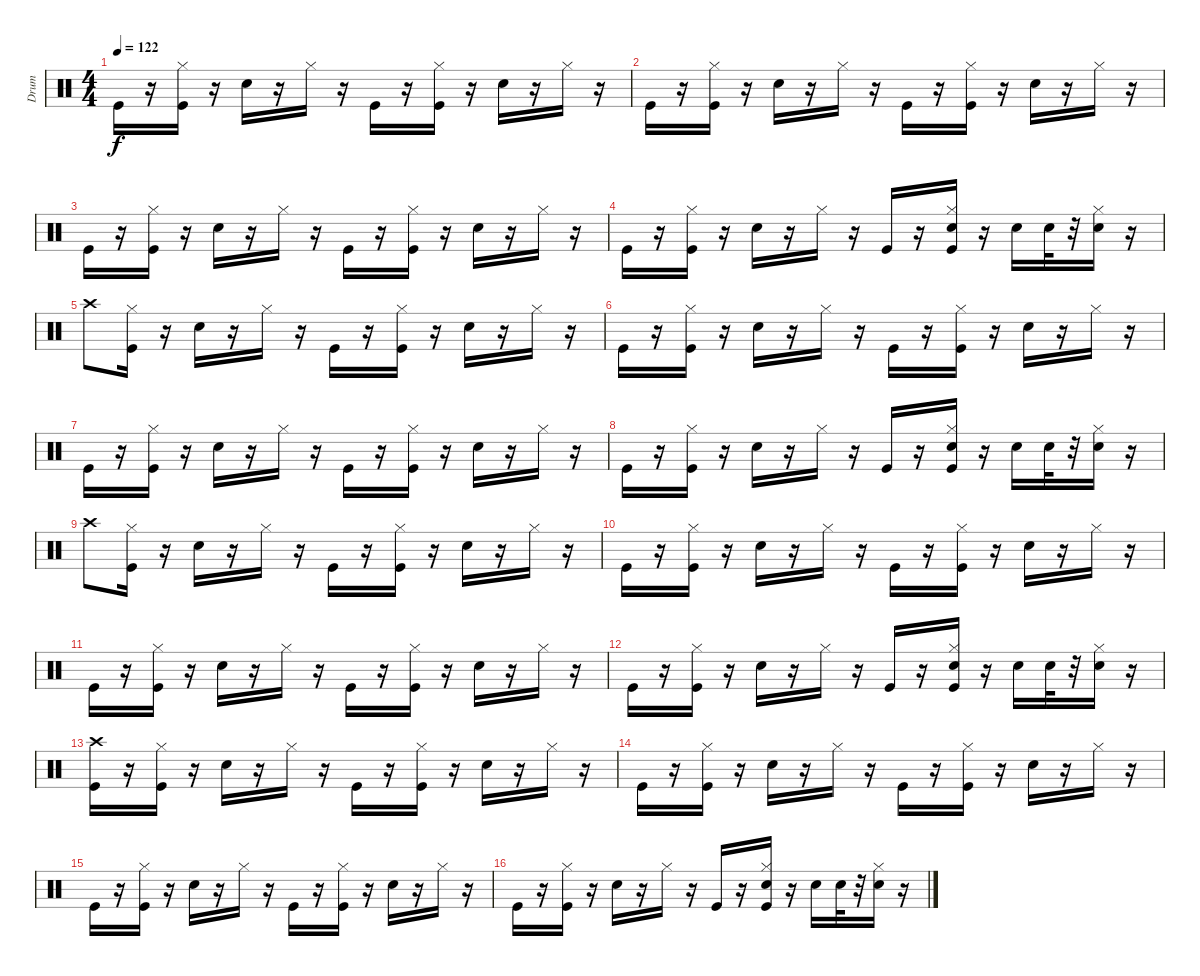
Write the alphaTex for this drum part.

\track ("Drum" "Drum") {instrument percussion}
\staff {score}
\articulation defaults
\ts (4 4)
\tempo 122
\clef neutral
\ks c "Kick (hit)".16{dy f}
r.16 ("Kick (hit)" "Hi-Hat (closed)").16 r.16 "Snare (hit) 2".16 r.16 "Hi-Hat (closed)".16 r.16 "Kick (hit)".16 r.16 ("Kick (hit)" "Hi-Hat (closed)").16 r.16 "Snare (hit) 2".16 r.16 "Hi-Hat (closed)".16 r.16 |
"Kick (hit)".16 r.16 ("Kick (hit)" "Hi-Hat (closed)").16 r.16 "Snare (hit) 2".16 r.16 "Hi-Hat (closed)".16 r.16 "Kick (hit)".16 r.16 ("Kick (hit)" "Hi-Hat (closed)").16 r.16 "Snare (hit) 2".16 r.16 "Hi-Hat (closed)".16 r.16 |
"Kick (hit)".16 r.16 ("Kick (hit)" "Hi-Hat (closed)").16 r.16 "Snare (hit) 2".16 r.16 "Hi-Hat (closed)".16 r.16 "Kick (hit)".16 r.16 ("Kick (hit)" "Hi-Hat (closed)").16 r.16 "Snare (hit) 2".16 r.16 "Hi-Hat (closed)".16 r.16 |
"Kick (hit)".16 r.16 ("Kick (hit)" "Hi-Hat (closed)").16 r.16 "Snare (hit) 2".16 r.16 "Hi-Hat (closed)".16 r.16 "Kick (hit)".16 r.16 ("Snare (hit) 2" "Kick (hit)" "Hi-Hat (closed)").16 r.16 "Snare (hit) 2".16 "Snare (hit) 2".32 r.32 ("Snare (hit) 2" "Hi-Hat (closed)").16 r.16 |
"Crash high (hit)".8 ("Kick (hit)" "Hi-Hat (closed)").16 r.16 "Snare (hit) 2".16 r.16 "Hi-Hat (closed)".16 r.16 "Kick (hit)".16 r.16 ("Kick (hit)" "Hi-Hat (closed)").16 r.16 "Snare (hit) 2".16 r.16 "Hi-Hat (closed)".16 r.16 |
"Kick (hit)".16 r.16 ("Kick (hit)" "Hi-Hat (closed)").16 r.16 "Snare (hit) 2".16 r.16 "Hi-Hat (closed)".16 r.16 "Kick (hit)".16 r.16 ("Kick (hit)" "Hi-Hat (closed)").16 r.16 "Snare (hit) 2".16 r.16 "Hi-Hat (closed)".16 r.16 |
"Kick (hit)".16 r.16 ("Kick (hit)" "Hi-Hat (closed)").16 r.16 "Snare (hit) 2".16 r.16 "Hi-Hat (closed)".16 r.16 "Kick (hit)".16 r.16 ("Kick (hit)" "Hi-Hat (closed)").16 r.16 "Snare (hit) 2".16 r.16 "Hi-Hat (closed)".16 r.16 |
"Kick (hit)".16 r.16 ("Kick (hit)" "Hi-Hat (closed)").16 r.16 "Snare (hit) 2".16 r.16 "Hi-Hat (closed)".16 r.16 "Kick (hit)".16 r.16 ("Snare (hit) 2" "Kick (hit)" "Hi-Hat (closed)").16 r.16 "Snare (hit) 2".16 "Snare (hit) 2".32 r.32 ("Snare (hit) 2" "Hi-Hat (closed)").16 r.16 |
"Crash high (hit)".8 ("Kick (hit)" "Hi-Hat (closed)").16 r.16 "Snare (hit) 2".16 r.16 "Hi-Hat (closed)".16 r.16 "Kick (hit)".16 r.16 ("Kick (hit)" "Hi-Hat (closed)").16 r.16 "Snare (hit) 2".16 r.16 "Hi-Hat (closed)".16 r.16 |
"Kick (hit)".16 r.16 ("Kick (hit)" "Hi-Hat (closed)").16 r.16 "Snare (hit) 2".16 r.16 "Hi-Hat (closed)".16 r.16 "Kick (hit)".16 r.16 ("Kick (hit)" "Hi-Hat (closed)").16 r.16 "Snare (hit) 2".16 r.16 "Hi-Hat (closed)".16 r.16 |
"Kick (hit)".16 r.16 ("Kick (hit)" "Hi-Hat (closed)").16 r.16 "Snare (hit) 2".16 r.16 "Hi-Hat (closed)".16 r.16 "Kick (hit)".16 r.16 ("Kick (hit)" "Hi-Hat (closed)").16 r.16 "Snare (hit) 2".16 r.16 "Hi-Hat (closed)".16 r.16 |
"Kick (hit)".16 r.16 ("Kick (hit)" "Hi-Hat (closed)").16 r.16 "Snare (hit) 2".16 r.16 "Hi-Hat (closed)".16 r.16 "Kick (hit)".16 r.16 ("Snare (hit) 2" "Kick (hit)" "Hi-Hat (closed)").16 r.16 "Snare (hit) 2".16 "Snare (hit) 2".32 r.32 ("Snare (hit) 2" "Hi-Hat (closed)").16 r.16 |
("Kick (hit)" "Crash high (hit)").16 r.16 ("Kick (hit)" "Hi-Hat (closed)").16 r.16 "Snare (hit) 2".16 r.16 "Hi-Hat (closed)".16 r.16 "Kick (hit)".16 r.16 ("Kick (hit)" "Hi-Hat (closed)").16 r.16 "Snare (hit) 2".16 r.16 "Hi-Hat (closed)".16 r.16 |
"Kick (hit)".16 r.16 ("Kick (hit)" "Hi-Hat (closed)").16 r.16 "Snare (hit) 2".16 r.16 "Hi-Hat (closed)".16 r.16 "Kick (hit)".16 r.16 ("Kick (hit)" "Hi-Hat (closed)").16 r.16 "Snare (hit) 2".16 r.16 "Hi-Hat (closed)".16 r.16 |
"Kick (hit)".16 r.16 ("Kick (hit)" "Hi-Hat (closed)").16 r.16 "Snare (hit) 2".16 r.16 "Hi-Hat (closed)".16 r.16 "Kick (hit)".16 r.16 ("Kick (hit)" "Hi-Hat (closed)").16 r.16 "Snare (hit) 2".16 r.16 "Hi-Hat (closed)".16 r.16 |
"Kick (hit)".16 r.16 ("Kick (hit)" "Hi-Hat (closed)").16 r.16 "Snare (hit) 2".16 r.16 "Hi-Hat (closed)".16 r.16 "Kick (hit)".16 r.16 ("Snare (hit) 2" "Kick (hit)" "Hi-Hat (closed)").16 r.16 "Snare (hit) 2".16 "Snare (hit) 2".32 r.32 ("Snare (hit) 2" "Hi-Hat (closed)").16 r.16
